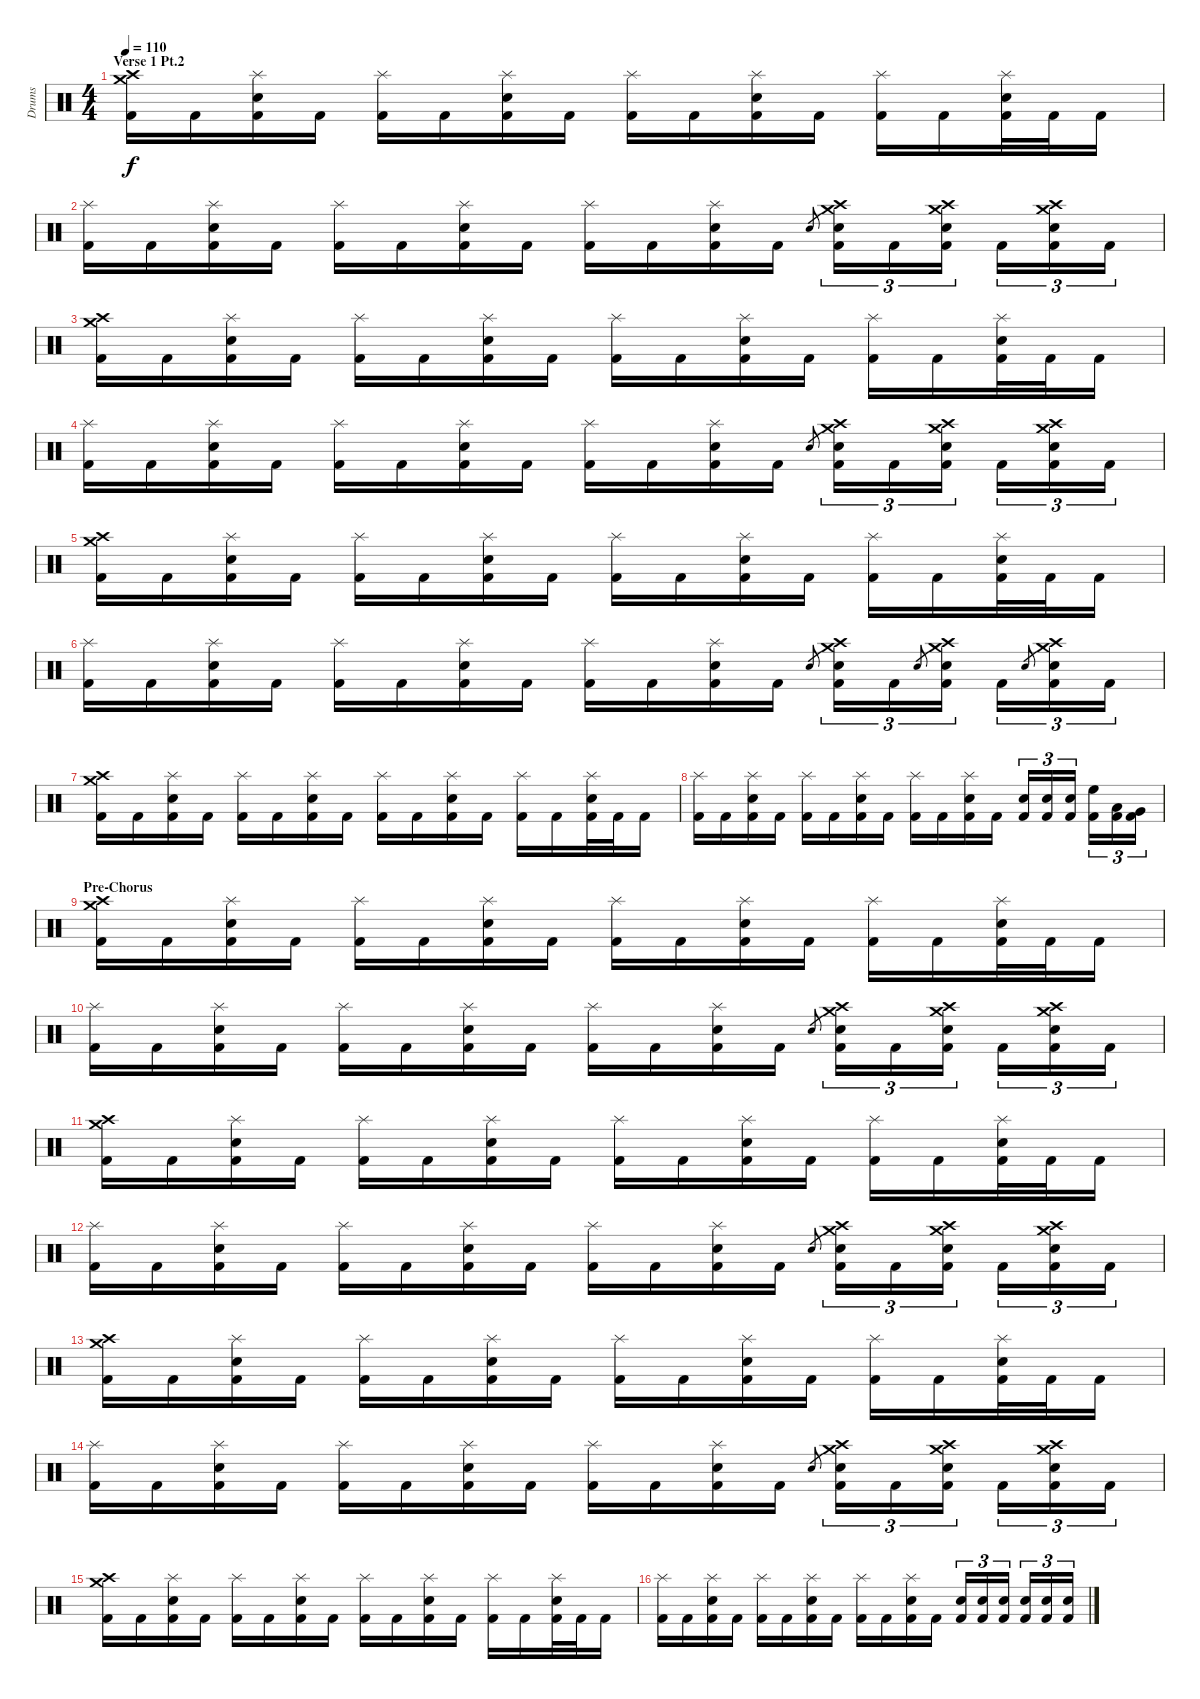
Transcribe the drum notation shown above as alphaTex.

\track ("Drums" "Drums") {instrument percussion}
\staff {score}
\articulation defaults
\ts (4 4)
\section ("" "Verse 1 Pt.2")
\tempo 110
\clef neutral
\ks c
("Crash medium (hit)" "Crash high (hit)" "Kick (hit) 2").16{dy f} "Kick (hit) 2".16 ("Splash (hit)" "Electric Snare (hit)" "Kick (hit) 2").16 "Kick (hit) 2".16 ("Splash (hit)" "Kick (hit) 2").16 "Kick (hit) 2".16 ("Splash (hit)" "Electric Snare (hit)" "Kick (hit) 2").16 "Kick (hit) 2".16 ("Splash (hit)" "Kick (hit) 2").16 "Kick (hit) 2".16 ("Splash (hit)" "Electric Snare (hit)" "Kick (hit) 2").16 "Kick (hit) 2".16 ("Splash (hit)" "Kick (hit) 2").16 "Kick (hit) 2".16 ("Splash (hit)" "Electric Snare (hit)" "Kick (hit) 2").32 "Kick (hit) 2".32 "Kick (hit) 2".16 |
("Splash (hit)" "Kick (hit) 2").16 "Kick (hit) 2".16 ("Splash (hit)" "Electric Snare (hit)" "Kick (hit) 2").16 "Kick (hit) 2".16 ("Splash (hit)" "Kick (hit) 2").16 "Kick (hit) 2".16 ("Splash (hit)" "Electric Snare (hit)" "Kick (hit) 2").16 "Kick (hit) 2".16 ("Splash (hit)" "Kick (hit) 2").16 "Kick (hit) 2".16 ("Splash (hit)" "Electric Snare (hit)" "Kick (hit) 2").16 "Kick (hit) 2".16 "Electric Snare (hit)".8{gr} ("Crash medium (hit)" "Crash high (hit)" "Electric Snare (hit)" "Kick (hit) 2").16{tu (3 2)} "Kick (hit) 2".16{tu (3 2)} ("Crash medium (hit)" "Crash high (hit)" "Electric Snare (hit)" "Kick (hit) 2").16{tu (3 2)} "Kick (hit) 2".16{tu (3 2)} ("Crash medium (hit)" "Crash high (hit)" "Electric Snare (hit)" "Kick (hit) 2").16{tu (3 2)} "Kick (hit) 2".16{tu (3 2)} |
("Crash medium (hit)" "Crash high (hit)" "Kick (hit) 2").16 "Kick (hit) 2".16 ("Splash (hit)" "Electric Snare (hit)" "Kick (hit) 2").16 "Kick (hit) 2".16 ("Splash (hit)" "Kick (hit) 2").16 "Kick (hit) 2".16 ("Splash (hit)" "Electric Snare (hit)" "Kick (hit) 2").16 "Kick (hit) 2".16 ("Splash (hit)" "Kick (hit) 2").16 "Kick (hit) 2".16 ("Splash (hit)" "Electric Snare (hit)" "Kick (hit) 2").16 "Kick (hit) 2".16 ("Splash (hit)" "Kick (hit) 2").16 "Kick (hit) 2".16 ("Splash (hit)" "Electric Snare (hit)" "Kick (hit) 2").32 "Kick (hit) 2".32 "Kick (hit) 2".16 |
("Splash (hit)" "Kick (hit) 2").16 "Kick (hit) 2".16 ("Splash (hit)" "Electric Snare (hit)" "Kick (hit) 2").16 "Kick (hit) 2".16 ("Splash (hit)" "Kick (hit) 2").16 "Kick (hit) 2".16 ("Splash (hit)" "Electric Snare (hit)" "Kick (hit) 2").16 "Kick (hit) 2".16 ("Splash (hit)" "Kick (hit) 2").16 "Kick (hit) 2".16 ("Splash (hit)" "Electric Snare (hit)" "Kick (hit) 2").16 "Kick (hit) 2".16 "Electric Snare (hit)".8{gr} ("Crash medium (hit)" "Crash high (hit)" "Electric Snare (hit)" "Kick (hit) 2").16{tu (3 2)} "Kick (hit) 2".16{tu (3 2)} ("Crash medium (hit)" "Crash high (hit)" "Electric Snare (hit)" "Kick (hit) 2").16{tu (3 2)} "Kick (hit) 2".16{tu (3 2)} ("Crash medium (hit)" "Crash high (hit)" "Electric Snare (hit)" "Kick (hit) 2").16{tu (3 2)} "Kick (hit) 2".16{tu (3 2)} |
("Crash medium (hit)" "Crash high (hit)" "Kick (hit) 2").16 "Kick (hit) 2".16 ("Splash (hit)" "Electric Snare (hit)" "Kick (hit) 2").16 "Kick (hit) 2".16 ("Splash (hit)" "Kick (hit) 2").16 "Kick (hit) 2".16 ("Splash (hit)" "Electric Snare (hit)" "Kick (hit) 2").16 "Kick (hit) 2".16 ("Splash (hit)" "Kick (hit) 2").16 "Kick (hit) 2".16 ("Splash (hit)" "Electric Snare (hit)" "Kick (hit) 2").16 "Kick (hit) 2".16 ("Splash (hit)" "Kick (hit) 2").16 "Kick (hit) 2".16 ("Splash (hit)" "Electric Snare (hit)" "Kick (hit) 2").32 "Kick (hit) 2".32 "Kick (hit) 2".16 |
("Splash (hit)" "Kick (hit) 2").16 "Kick (hit) 2".16 ("Splash (hit)" "Electric Snare (hit)" "Kick (hit) 2").16 "Kick (hit) 2".16 ("Splash (hit)" "Kick (hit) 2").16 "Kick (hit) 2".16 ("Splash (hit)" "Electric Snare (hit)" "Kick (hit) 2").16 "Kick (hit) 2".16 ("Splash (hit)" "Kick (hit) 2").16 "Kick (hit) 2".16 ("Splash (hit)" "Electric Snare (hit)" "Kick (hit) 2").16 "Kick (hit) 2".16 "Electric Snare (hit)".8{gr} ("Crash medium (hit)" "Crash high (hit)" "Electric Snare (hit)" "Kick (hit) 2").16{tu (3 2)} "Kick (hit) 2".16{tu (3 2)} "Electric Snare (hit)".8{gr} ("Crash medium (hit)" "Crash high (hit)" "Electric Snare (hit)" "Kick (hit) 2").16{tu (3 2)} "Kick (hit) 2".16{tu (3 2)} "Electric Snare (hit)".8{gr} ("Crash medium (hit)" "Crash high (hit)" "Electric Snare (hit)" "Kick (hit) 2").16{tu (3 2)} "Kick (hit) 2".16{tu (3 2)} |
("Crash medium (hit)" "Crash high (hit)" "Kick (hit) 2").16 "Kick (hit) 2".16 ("Splash (hit)" "Electric Snare (hit)" "Kick (hit) 2").16 "Kick (hit) 2".16 ("Splash (hit)" "Kick (hit) 2").16 "Kick (hit) 2".16 ("Splash (hit)" "Electric Snare (hit)" "Kick (hit) 2").16 "Kick (hit) 2".16 ("Splash (hit)" "Kick (hit) 2").16 "Kick (hit) 2".16 ("Splash (hit)" "Electric Snare (hit)" "Kick (hit) 2").16 "Kick (hit) 2".16 ("Splash (hit)" "Kick (hit) 2").16 "Kick (hit) 2".16 ("Splash (hit)" "Electric Snare (hit)" "Kick (hit) 2").32 "Kick (hit) 2".32 "Kick (hit) 2".16 |
("Splash (hit)" "Kick (hit) 2").16 "Kick (hit) 2".16 ("Splash (hit)" "Electric Snare (hit)" "Kick (hit) 2").16 "Kick (hit) 2".16 ("Splash (hit)" "Kick (hit) 2").16 "Kick (hit) 2".16 ("Splash (hit)" "Electric Snare (hit)" "Kick (hit) 2").16 "Kick (hit) 2".16 ("Splash (hit)" "Kick (hit) 2").16 "Kick (hit) 2".16 ("Splash (hit)" "Electric Snare (hit)" "Kick (hit) 2").16 "Kick (hit) 2".16 ("Electric Snare (hit)" "Kick (hit) 2").16{tu (3 2)} ("Electric Snare (hit)" "Kick (hit) 2").16{tu (3 2)} ("Electric Snare (hit)" "Kick (hit) 2").16{tu (3 2)} ("High Floor Tom (hit)" "Kick (hit) 2").16{tu (3 2)} ("Low Tom (hit)" "Kick (hit) 2").16{tu (3 2)} ("Very Low Tom (hit)" "Kick (hit) 2").16{tu (3 2)} |
\section ("" "Pre-Chorus")
("Crash medium (hit)" "Crash high (hit)" "Kick (hit) 2").16 "Kick (hit) 2".16 ("Splash (hit)" "Electric Snare (hit)" "Kick (hit) 2").16 "Kick (hit) 2".16 ("Splash (hit)" "Kick (hit) 2").16 "Kick (hit) 2".16 ("Splash (hit)" "Electric Snare (hit)" "Kick (hit) 2").16 "Kick (hit) 2".16 ("Splash (hit)" "Kick (hit) 2").16 "Kick (hit) 2".16 ("Splash (hit)" "Electric Snare (hit)" "Kick (hit) 2").16 "Kick (hit) 2".16 ("Splash (hit)" "Kick (hit) 2").16 "Kick (hit) 2".16 ("Splash (hit)" "Electric Snare (hit)" "Kick (hit) 2").32 "Kick (hit) 2".32 "Kick (hit) 2".16 |
("Splash (hit)" "Kick (hit) 2").16 "Kick (hit) 2".16 ("Splash (hit)" "Electric Snare (hit)" "Kick (hit) 2").16 "Kick (hit) 2".16 ("Splash (hit)" "Kick (hit) 2").16 "Kick (hit) 2".16 ("Splash (hit)" "Electric Snare (hit)" "Kick (hit) 2").16 "Kick (hit) 2".16 ("Splash (hit)" "Kick (hit) 2").16 "Kick (hit) 2".16 ("Splash (hit)" "Electric Snare (hit)" "Kick (hit) 2").16 "Kick (hit) 2".16 "Electric Snare (hit)".8{gr} ("Crash medium (hit)" "Crash high (hit)" "Electric Snare (hit)" "Kick (hit) 2").16{tu (3 2)} "Kick (hit) 2".16{tu (3 2)} ("Crash medium (hit)" "Crash high (hit)" "Electric Snare (hit)" "Kick (hit) 2").16{tu (3 2)} "Kick (hit) 2".16{tu (3 2)} ("Crash medium (hit)" "Crash high (hit)" "Electric Snare (hit)" "Kick (hit) 2").16{tu (3 2)} "Kick (hit) 2".16{tu (3 2)} |
("Crash medium (hit)" "Crash high (hit)" "Kick (hit) 2").16 "Kick (hit) 2".16 ("Splash (hit)" "Electric Snare (hit)" "Kick (hit) 2").16 "Kick (hit) 2".16 ("Splash (hit)" "Kick (hit) 2").16 "Kick (hit) 2".16 ("Splash (hit)" "Electric Snare (hit)" "Kick (hit) 2").16 "Kick (hit) 2".16 ("Splash (hit)" "Kick (hit) 2").16 "Kick (hit) 2".16 ("Splash (hit)" "Electric Snare (hit)" "Kick (hit) 2").16 "Kick (hit) 2".16 ("Splash (hit)" "Kick (hit) 2").16 "Kick (hit) 2".16 ("Splash (hit)" "Electric Snare (hit)" "Kick (hit) 2").32 "Kick (hit) 2".32 "Kick (hit) 2".16 |
("Splash (hit)" "Kick (hit) 2").16 "Kick (hit) 2".16 ("Splash (hit)" "Electric Snare (hit)" "Kick (hit) 2").16 "Kick (hit) 2".16 ("Splash (hit)" "Kick (hit) 2").16 "Kick (hit) 2".16 ("Splash (hit)" "Electric Snare (hit)" "Kick (hit) 2").16 "Kick (hit) 2".16 ("Splash (hit)" "Kick (hit) 2").16 "Kick (hit) 2".16 ("Splash (hit)" "Electric Snare (hit)" "Kick (hit) 2").16 "Kick (hit) 2".16 "Electric Snare (hit)".8{gr} ("Crash medium (hit)" "Crash high (hit)" "Electric Snare (hit)" "Kick (hit) 2").16{tu (3 2)} "Kick (hit) 2".16{tu (3 2)} ("Crash medium (hit)" "Crash high (hit)" "Electric Snare (hit)" "Kick (hit) 2").16{tu (3 2)} "Kick (hit) 2".16{tu (3 2)} ("Crash medium (hit)" "Crash high (hit)" "Electric Snare (hit)" "Kick (hit) 2").16{tu (3 2)} "Kick (hit) 2".16{tu (3 2)} |
("Crash medium (hit)" "Crash high (hit)" "Kick (hit) 2").16 "Kick (hit) 2".16 ("Splash (hit)" "Electric Snare (hit)" "Kick (hit) 2").16 "Kick (hit) 2".16 ("Splash (hit)" "Kick (hit) 2").16 "Kick (hit) 2".16 ("Splash (hit)" "Electric Snare (hit)" "Kick (hit) 2").16 "Kick (hit) 2".16 ("Splash (hit)" "Kick (hit) 2").16 "Kick (hit) 2".16 ("Splash (hit)" "Electric Snare (hit)" "Kick (hit) 2").16 "Kick (hit) 2".16 ("Splash (hit)" "Kick (hit) 2").16 "Kick (hit) 2".16 ("Splash (hit)" "Electric Snare (hit)" "Kick (hit) 2").32 "Kick (hit) 2".32 "Kick (hit) 2".16 |
("Splash (hit)" "Kick (hit) 2").16 "Kick (hit) 2".16 ("Splash (hit)" "Electric Snare (hit)" "Kick (hit) 2").16 "Kick (hit) 2".16 ("Splash (hit)" "Kick (hit) 2").16 "Kick (hit) 2".16 ("Splash (hit)" "Electric Snare (hit)" "Kick (hit) 2").16 "Kick (hit) 2".16 ("Splash (hit)" "Kick (hit) 2").16 "Kick (hit) 2".16 ("Splash (hit)" "Electric Snare (hit)" "Kick (hit) 2").16 "Kick (hit) 2".16 "Electric Snare (hit)".8{gr} ("Crash medium (hit)" "Crash high (hit)" "Electric Snare (hit)" "Kick (hit) 2").16{tu (3 2)} "Kick (hit) 2".16{tu (3 2)} ("Crash medium (hit)" "Crash high (hit)" "Electric Snare (hit)" "Kick (hit) 2").16{tu (3 2)} "Kick (hit) 2".16{tu (3 2)} ("Crash medium (hit)" "Crash high (hit)" "Electric Snare (hit)" "Kick (hit) 2").16{tu (3 2)} "Kick (hit) 2".16{tu (3 2)} |
("Crash medium (hit)" "Crash high (hit)" "Kick (hit) 2").16 "Kick (hit) 2".16 ("Splash (hit)" "Electric Snare (hit)" "Kick (hit) 2").16 "Kick (hit) 2".16 ("Splash (hit)" "Kick (hit) 2").16 "Kick (hit) 2".16 ("Splash (hit)" "Electric Snare (hit)" "Kick (hit) 2").16 "Kick (hit) 2".16 ("Splash (hit)" "Kick (hit) 2").16 "Kick (hit) 2".16 ("Splash (hit)" "Electric Snare (hit)" "Kick (hit) 2").16 "Kick (hit) 2".16 ("Splash (hit)" "Kick (hit) 2").16 "Kick (hit) 2".16 ("Splash (hit)" "Electric Snare (hit)" "Kick (hit) 2").32 "Kick (hit) 2".32 "Kick (hit) 2".16 |
("Splash (hit)" "Kick (hit) 2").16 "Kick (hit) 2".16 ("Splash (hit)" "Electric Snare (hit)" "Kick (hit) 2").16 "Kick (hit) 2".16 ("Splash (hit)" "Kick (hit) 2").16 "Kick (hit) 2".16 ("Splash (hit)" "Electric Snare (hit)" "Kick (hit) 2").16 "Kick (hit) 2".16 ("Splash (hit)" "Kick (hit) 2").16 "Kick (hit) 2".16 ("Splash (hit)" "Electric Snare (hit)" "Kick (hit) 2").16 "Kick (hit) 2".16 ("Electric Snare (hit)" "Kick (hit) 2").16{tu (3 2)} ("Electric Snare (hit)" "Kick (hit) 2").16{tu (3 2)} ("Electric Snare (hit)" "Kick (hit) 2").16{tu (3 2)} ("Electric Snare (hit)" "Kick (hit) 2").16{tu (3 2)} ("Electric Snare (hit)" "Kick (hit) 2").16{tu (3 2)} ("Electric Snare (hit)" "Kick (hit) 2").16{tu (3 2)}
